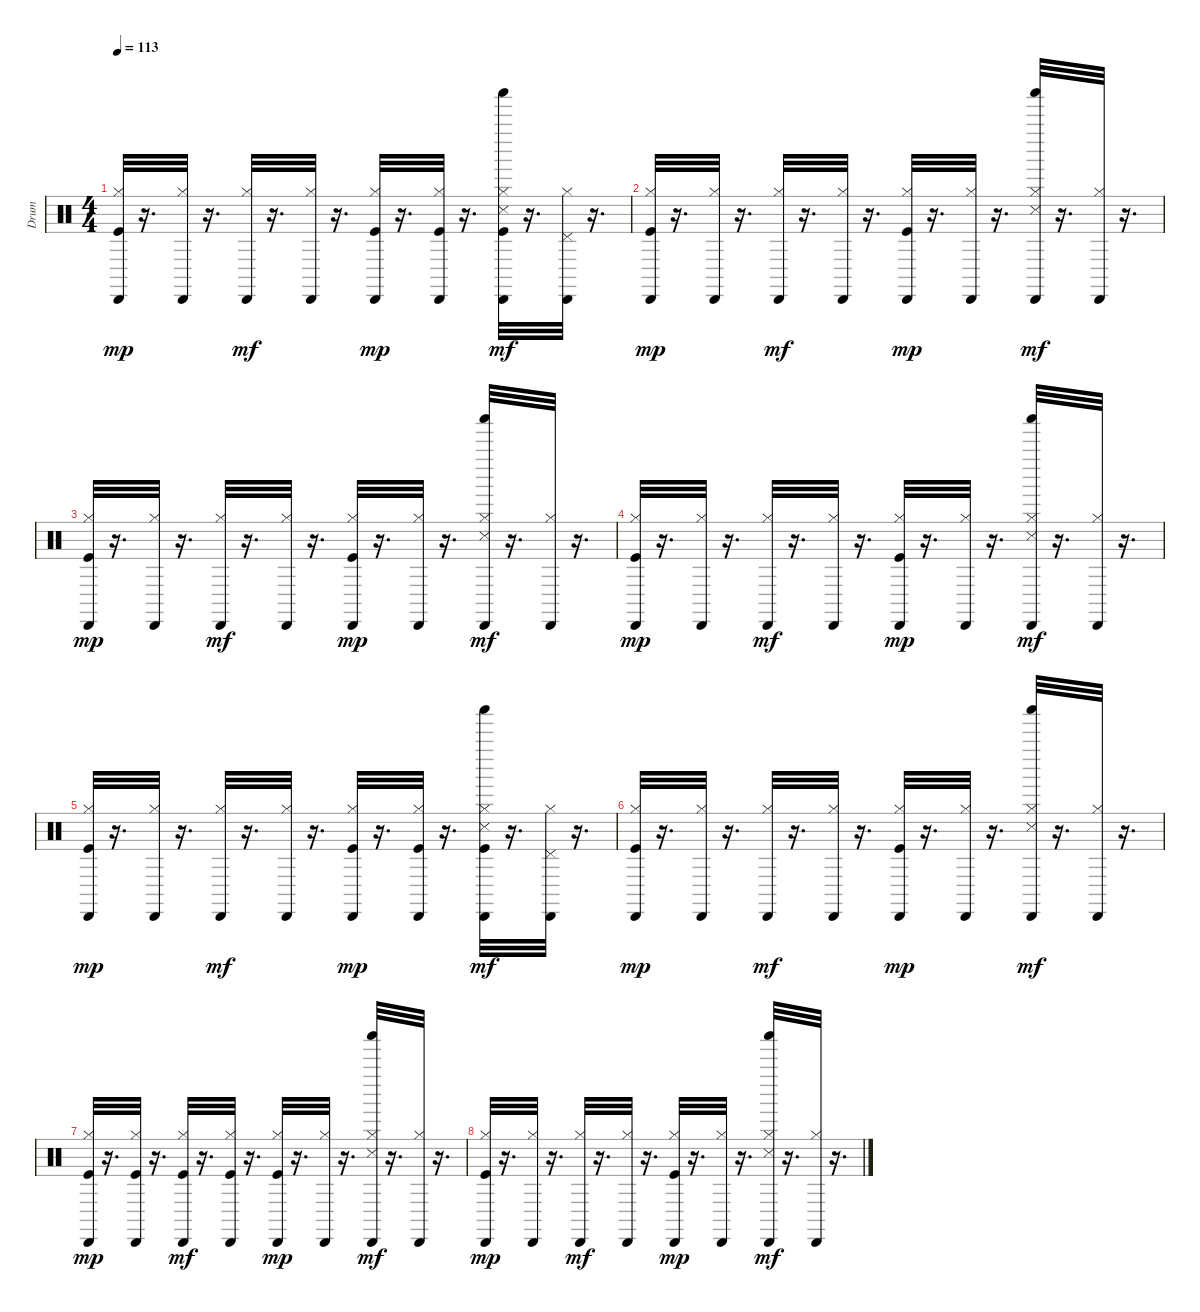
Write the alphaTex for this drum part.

\track ("Drum" "Drum") {instrument percussion}
\staff {score}
\articulation defaults
\ts (4 4)
\tempo 113
\clef neutral
\ks c
("Hi-Hat (closed)" "Kick (hit)" "Cabasa (hit)").32{dy mp} r.16{d} ("Hi-Hat (closed)" "Cabasa (hit)").32 r.16{d} ("Hi-Hat (closed)" "Cabasa (hit)").32{dy mf} r.16{d} ("Hi-Hat (closed)" "Cabasa (hit)").32 r.16{d} ("Hi-Hat (closed)" "Kick (hit)" "Cabasa (hit)").32{dy mp} r.16{d} ("Hi-Hat (closed)" "Kick (hit)" "Cabasa (hit)").32 r.16{d} ("Hi-Hat (closed)" "Shaker (hit)" "Snare (side stick) 3" "Kick (hit)" "Cabasa (hit)").32{dy mf} r.16{d} ("Hi-Hat (closed)" "Pedal Hi-Hat (hit)" "Cabasa (hit)").32 r.16{d} |
("Hi-Hat (closed)" "Kick (hit)" "Cabasa (hit)").32{dy mp} r.16{d} ("Hi-Hat (closed)" "Cabasa (hit)").32 r.16{d} ("Hi-Hat (closed)" "Cabasa (hit)").32{dy mf} r.16{d} ("Hi-Hat (closed)" "Cabasa (hit)").32 r.16{d} ("Hi-Hat (closed)" "Kick (hit)" "Cabasa (hit)").32{dy mp} r.16{d} ("Hi-Hat (closed)" "Cabasa (hit)").32 r.16{d} ("Hi-Hat (closed)" "Shaker (hit)" "Snare (side stick) 3" "Cabasa (hit)").32{dy mf} r.16{d} ("Hi-Hat (closed)" "Cabasa (hit)").32 r.16{d} |
("Hi-Hat (closed)" "Kick (hit)" "Cabasa (hit)").32{dy mp} r.16{d} ("Hi-Hat (closed)" "Cabasa (hit)").32 r.16{d} ("Hi-Hat (closed)" "Cabasa (hit)").32{dy mf} r.16{d} ("Hi-Hat (closed)" "Cabasa (hit)").32 r.16{d} ("Hi-Hat (closed)" "Kick (hit)" "Cabasa (hit)").32{dy mp} r.16{d} ("Hi-Hat (closed)" "Cabasa (hit)").32 r.16{d} ("Hi-Hat (closed)" "Shaker (hit)" "Snare (side stick) 3" "Cabasa (hit)").32{dy mf} r.16{d} ("Hi-Hat (closed)" "Cabasa (hit)").32 r.16{d} |
("Hi-Hat (closed)" "Kick (hit)" "Cabasa (hit)").32{dy mp} r.16{d} ("Hi-Hat (closed)" "Cabasa (hit)").32 r.16{d} ("Hi-Hat (closed)" "Cabasa (hit)").32{dy mf} r.16{d} ("Hi-Hat (closed)" "Cabasa (hit)").32 r.16{d} ("Hi-Hat (closed)" "Kick (hit)" "Cabasa (hit)").32{dy mp} r.16{d} ("Hi-Hat (closed)" "Cabasa (hit)").32 r.16{d} ("Hi-Hat (closed)" "Shaker (hit)" "Snare (side stick) 3" "Cabasa (hit)").32{dy mf} r.16{d} ("Hi-Hat (closed)" "Cabasa (hit)").32 r.16{d} |
("Hi-Hat (closed)" "Kick (hit)" "Cabasa (hit)").32{dy mp} r.16{d} ("Hi-Hat (closed)" "Cabasa (hit)").32 r.16{d} ("Hi-Hat (closed)" "Cabasa (hit)").32{dy mf} r.16{d} ("Hi-Hat (closed)" "Cabasa (hit)").32 r.16{d} ("Hi-Hat (closed)" "Kick (hit)" "Cabasa (hit)").32{dy mp} r.16{d} ("Hi-Hat (closed)" "Kick (hit)" "Cabasa (hit)").32 r.16{d} ("Hi-Hat (closed)" "Shaker (hit)" "Snare (side stick) 3" "Kick (hit)" "Cabasa (hit)").32{dy mf} r.16{d} ("Hi-Hat (closed)" "Pedal Hi-Hat (hit)" "Cabasa (hit)").32 r.16{d} |
("Hi-Hat (closed)" "Kick (hit)" "Cabasa (hit)").32{dy mp} r.16{d} ("Hi-Hat (closed)" "Cabasa (hit)").32 r.16{d} ("Hi-Hat (closed)" "Cabasa (hit)").32{dy mf} r.16{d} ("Hi-Hat (closed)" "Cabasa (hit)").32 r.16{d} ("Hi-Hat (closed)" "Kick (hit)" "Cabasa (hit)").32{dy mp} r.16{d} ("Hi-Hat (closed)" "Cabasa (hit)").32 r.16{d} ("Hi-Hat (closed)" "Shaker (hit)" "Snare (side stick) 3" "Cabasa (hit)").32{dy mf} r.16{d} ("Hi-Hat (closed)" "Cabasa (hit)").32 r.16{d} |
("Hi-Hat (closed)" "Kick (hit)" "Cabasa (hit)").32{dy mp} r.16{d} ("Hi-Hat (closed)" "Kick (hit)" "Cabasa (hit)").32 r.16{d} ("Hi-Hat (closed)" "Kick (hit)" "Cabasa (hit)").32{dy mf} r.16{d} ("Hi-Hat (closed)" "Kick (hit)" "Cabasa (hit)").32 r.16{d} ("Hi-Hat (closed)" "Kick (hit)" "Cabasa (hit)").32{dy mp} r.16{d} ("Hi-Hat (closed)" "Cabasa (hit)").32 r.16{d} ("Hi-Hat (closed)" "Shaker (hit)" "Snare (side stick) 3" "Cabasa (hit)").32{dy mf} r.16{d} ("Hi-Hat (closed)" "Cabasa (hit)").32 r.16{d} |
("Hi-Hat (closed)" "Kick (hit)" "Cabasa (hit)").32{dy mp} r.16{d} ("Hi-Hat (closed)" "Cabasa (hit)").32 r.16{d} ("Hi-Hat (closed)" "Cabasa (hit)").32{dy mf} r.16{d} ("Hi-Hat (closed)" "Cabasa (hit)").32 r.16{d} ("Hi-Hat (closed)" "Kick (hit)" "Cabasa (hit)").32{dy mp} r.16{d} ("Hi-Hat (closed)" "Cabasa (hit)").32 r.16{d} ("Hi-Hat (closed)" "Shaker (hit)" "Snare (side stick) 3" "Cabasa (hit)").32{dy mf} r.16{d} ("Hi-Hat (closed)" "Cabasa (hit)").32 r.16{d}
